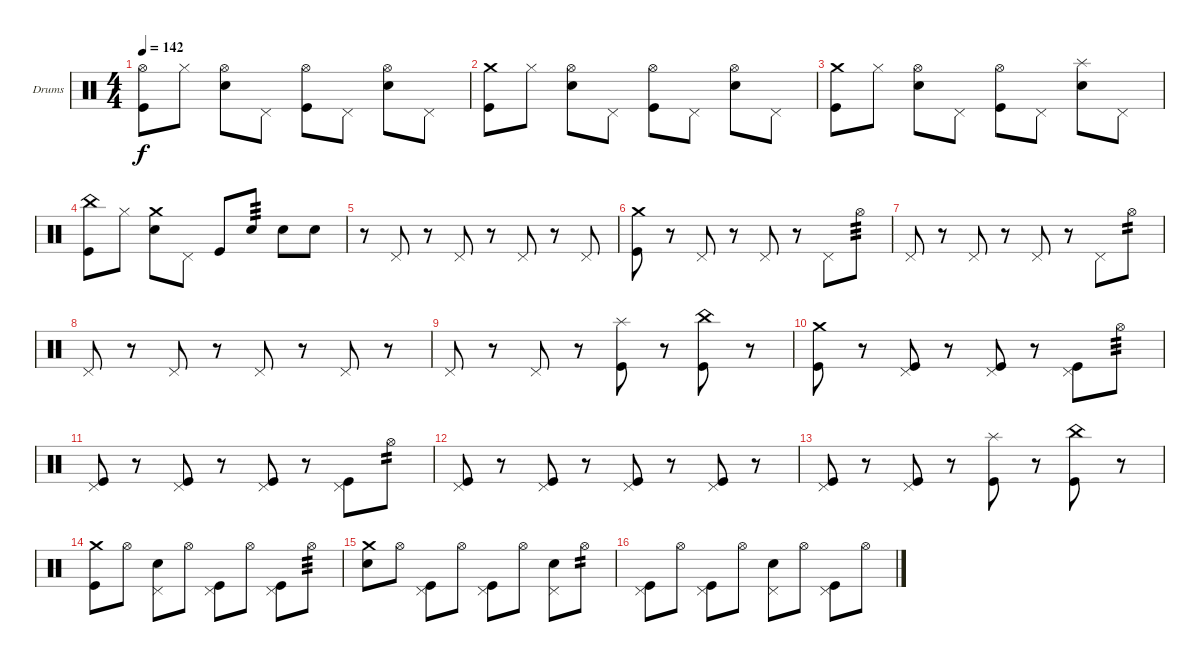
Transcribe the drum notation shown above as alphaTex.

\bracketExtendMode groupsimilarinstruments
\firstSystemTrackNameOrientation horizontal
\otherSystemsTrackNameOrientation horizontal
\track ("Drumkit" "Drums") {solo instrument percussion}
\staff {score}
\articulation defaults
\ts (4 4)
\tempo 142
\clef neutral
\ks c
("Hi-Hat (open)" "Kick (hit)").8{dy f} "Hi-Hat (closed)".8 ("Hi-Hat (open)" "Snare (hit) 2").8 "Pedal Hi-Hat (hit)".8 ("Hi-Hat (open)" "Kick (hit)").8 "Pedal Hi-Hat (hit)".8 ("Hi-Hat (open)" "Snare (hit) 2").8 "Pedal Hi-Hat (hit)".8 |
("Crash medium (hit)" "Kick (hit)").8 "Hi-Hat (closed)".8 ("Hi-Hat (open)" "Snare (hit) 2").8 "Pedal Hi-Hat (hit)".8 ("Hi-Hat (open)" "Kick (hit)").8 "Pedal Hi-Hat (hit)".8 ("Hi-Hat (open)" "Snare (hit) 2").8 "Pedal Hi-Hat (hit)".8 |
("Crash medium (hit)" "Kick (hit)").8 "Hi-Hat (closed)".8 ("Hi-Hat (open)" "Snare (hit) 2").8 "Pedal Hi-Hat (hit)".8 ("Hi-Hat (open)" "Kick (hit)").8 "Pedal Hi-Hat (hit)".8 ("Splash (hit)" "Snare (hit) 2").8 "Pedal Hi-Hat (hit)".8 |
("China (hit)" "Kick (hit)").8 "Hi-Hat (closed)".8 ("Crash medium (hit)" "Snare (hit) 2").8 "Pedal Hi-Hat (hit)".8 "Kick (hit)".8 "Snare (hit) 2".8{tp 3} "Snare (hit) 2".8 "Snare (hit) 2".8 |
r.8 "Pedal Hi-Hat (hit)".8 r.8 "Pedal Hi-Hat (hit)".8 r.8 "Pedal Hi-Hat (hit)".8 r.8 "Pedal Hi-Hat (hit)".8 |
("Kick (hit)" "Crash medium (hit)").8 r.8 "Pedal Hi-Hat (hit)".8 r.8 "Pedal Hi-Hat (hit)".8 r.8 "Pedal Hi-Hat (hit)".8 "Hi-Hat (open)".8{tp 3} |
"Pedal Hi-Hat (hit)".8 r.8 "Pedal Hi-Hat (hit)".8 r.8 "Pedal Hi-Hat (hit)".8 r.8 "Pedal Hi-Hat (hit)".8 "Hi-Hat (open)".8{tp 2} |
"Pedal Hi-Hat (hit)".8 r.8 "Pedal Hi-Hat (hit)".8 r.8 "Pedal Hi-Hat (hit)".8 r.8 "Pedal Hi-Hat (hit)".8 r.8 |
"Pedal Hi-Hat (hit)".8 r.8 "Pedal Hi-Hat (hit)".8 r.8 ("Splash (hit)" "Kick (hit)").8 r.8 ("China (hit)" "Kick (hit)").8 r.8 |
("Kick (hit)" "Crash medium (hit)").8 r.8 ("Pedal Hi-Hat (hit)" "Kick (hit)").8 r.8 ("Pedal Hi-Hat (hit)" "Kick (hit)").8 r.8 ("Pedal Hi-Hat (hit)" "Kick (hit)").8 "Hi-Hat (open)".8{tp 3} |
("Pedal Hi-Hat (hit)" "Kick (hit)").8 r.8 ("Pedal Hi-Hat (hit)" "Kick (hit)").8 r.8 ("Pedal Hi-Hat (hit)" "Kick (hit)").8 r.8 ("Pedal Hi-Hat (hit)" "Kick (hit)").8 "Hi-Hat (open)".8{tp 2} |
("Pedal Hi-Hat (hit)" "Kick (hit)").8 r.8 ("Pedal Hi-Hat (hit)" "Kick (hit)").8 r.8 ("Pedal Hi-Hat (hit)" "Kick (hit)").8 r.8 ("Pedal Hi-Hat (hit)" "Kick (hit)").8 r.8 |
("Pedal Hi-Hat (hit)" "Kick (hit)").8 r.8 ("Pedal Hi-Hat (hit)" "Kick (hit)").8 r.8 ("Splash (hit)" "Kick (hit)").8 r.8 ("China (hit)" "Kick (hit)").8 r.8 |
("Kick (hit)" "Crash medium (hit)").8 "Hi-Hat (open)".8 ("Pedal Hi-Hat (hit)" "Snare (hit) 2").8 "Hi-Hat (open)".8 ("Pedal Hi-Hat (hit)" "Kick (hit)").8 "Hi-Hat (open)".8 ("Pedal Hi-Hat (hit)" "Kick (hit)").8 "Hi-Hat (open)".8{tp 3} |
("Crash medium (hit)" "Snare (hit) 2").8 "Hi-Hat (open)".8 ("Pedal Hi-Hat (hit)" "Kick (hit)").8 "Hi-Hat (open)".8 ("Pedal Hi-Hat (hit)" "Kick (hit)").8 "Hi-Hat (open)".8 ("Pedal Hi-Hat (hit)" "Snare (hit) 2").8 "Hi-Hat (open)".8{tp 2} |
("Pedal Hi-Hat (hit)" "Kick (hit)").8 "Hi-Hat (open)".8 ("Pedal Hi-Hat (hit)" "Kick (hit)").8 "Hi-Hat (open)".8 ("Pedal Hi-Hat (hit)" "Snare (hit) 2").8 "Hi-Hat (open)".8 ("Pedal Hi-Hat (hit)" "Kick (hit)").8 "Hi-Hat (open)".8
